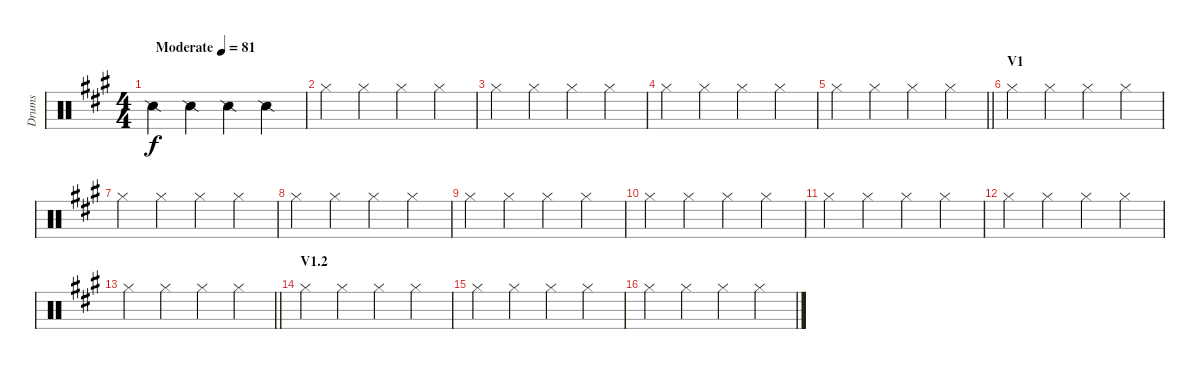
\track ("Drums" "Drums") {instrument percussion}
\staff {score}
\articulation defaults
\ts (4 4)
\tempo (81 "Moderate")
\clef neutral
\ks f#minor "Snare (side stick) 2".4{dy f} "Snare (side stick) 2".4 "Snare (side stick) 2".4 "Snare (side stick) 2".4
|
"Hi-Hat (closed)".4 "Hi-Hat (closed)".4 "Hi-Hat (closed)".4 "Hi-Hat (closed)".4 |
"Hi-Hat (closed)".4 "Hi-Hat (closed)".4 "Hi-Hat (closed)".4 "Hi-Hat (closed)".4 |
"Hi-Hat (closed)".4 "Hi-Hat (closed)".4 "Hi-Hat (closed)".4 "Hi-Hat (closed)".4 |
\barLineRight lightlight "Hi-Hat (closed)".4 "Hi-Hat (closed)".4 "Hi-Hat (closed)".4 "Hi-Hat (closed)".4
|
\section ("" "V1")
"Hi-Hat (closed)".4 "Hi-Hat (closed)".4 "Hi-Hat (closed)".4 "Hi-Hat (closed)".4 |
"Hi-Hat (closed)".4 "Hi-Hat (closed)".4 "Hi-Hat (closed)".4 "Hi-Hat (closed)".4 |
"Hi-Hat (closed)".4 "Hi-Hat (closed)".4 "Hi-Hat (closed)".4 "Hi-Hat (closed)".4 |
"Hi-Hat (closed)".4 "Hi-Hat (closed)".4 "Hi-Hat (closed)".4 "Hi-Hat (closed)".4 |
"Hi-Hat (closed)".4 "Hi-Hat (closed)".4 "Hi-Hat (closed)".4 "Hi-Hat (closed)".4 |
"Hi-Hat (closed)".4 "Hi-Hat (closed)".4 "Hi-Hat (closed)".4 "Hi-Hat (closed)".4 |
"Hi-Hat (closed)".4 "Hi-Hat (closed)".4 "Hi-Hat (closed)".4 "Hi-Hat (closed)".4 |
\barLineRight lightlight "Hi-Hat (closed)".4 "Hi-Hat (closed)".4 "Hi-Hat (closed)".4 "Hi-Hat (closed)".4
|
\section ("" "V1.2")
"Hi-Hat (closed)".4 "Hi-Hat (closed)".4 "Hi-Hat (closed)".4 "Hi-Hat (closed)".4 |
"Hi-Hat (closed)".4 "Hi-Hat (closed)".4 "Hi-Hat (closed)".4 "Hi-Hat (closed)".4 |
"Hi-Hat (closed)".4 "Hi-Hat (closed)".4 "Hi-Hat (closed)".4 "Hi-Hat (closed)".4
